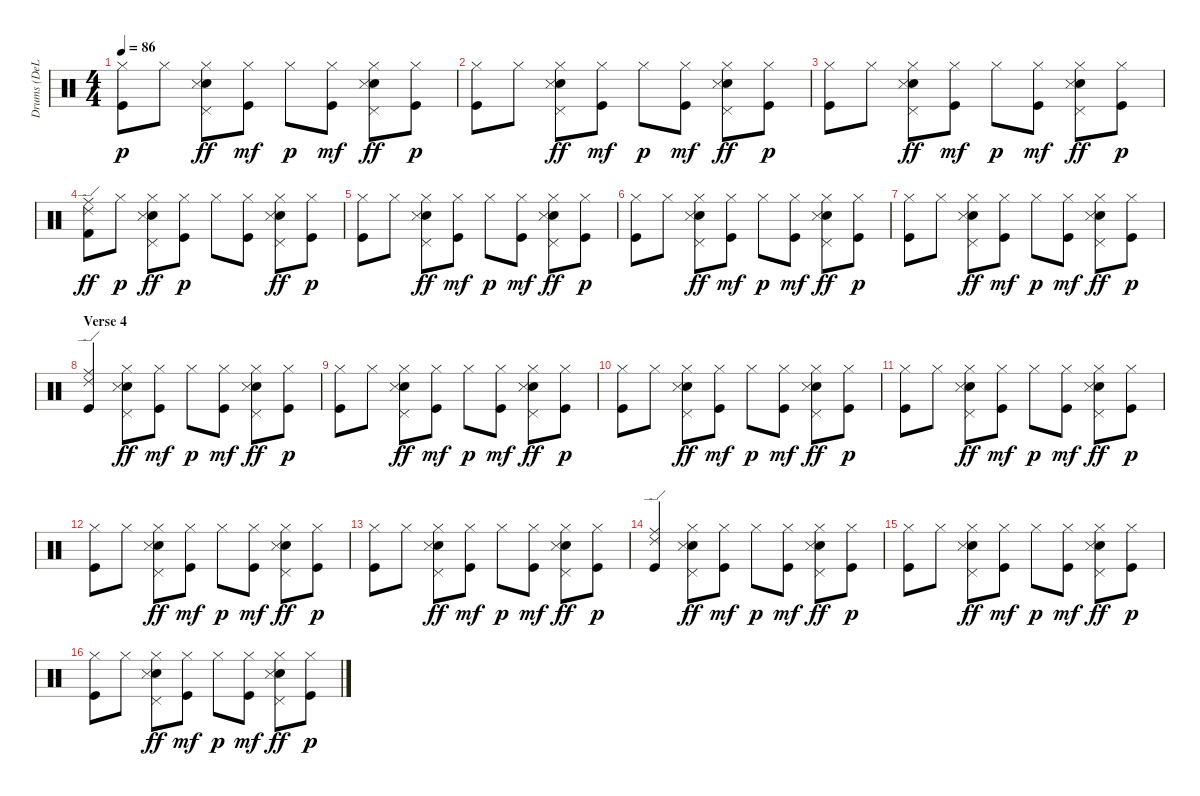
\track ("Drums (DeLorenzo)" "Drums (DeL") {instrument percussion}
\staff {score}
\articulation defaults
\ts (4 4)
\tempo 86
\clef neutral
\ks c
("Hi-Hat (closed)" "Kick (hit)").8{dy p} "Hi-Hat (closed)".8 ("Hi-Hat (closed)" "Pedal Hi-Hat (hit)" "Electric Snare (hit)" "Snare (side stick) 3").8{dy ff} ("Hi-Hat (closed)" "Kick (hit)").8{dy mf} "Hi-Hat (closed)".8{dy p} ("Hi-Hat (closed)" "Kick (hit)").8{dy mf} ("Hi-Hat (closed)" "Pedal Hi-Hat (hit)" "Electric Snare (hit)" "Snare (side stick) 3").8{dy ff} ("Hi-Hat (closed)" "Kick (hit)").8{dy p} |
("Hi-Hat (closed)" "Kick (hit)").8 "Hi-Hat (closed)".8 ("Hi-Hat (closed)" "Pedal Hi-Hat (hit)" "Electric Snare (hit)" "Snare (side stick) 3").8{dy ff} ("Hi-Hat (closed)" "Kick (hit)").8{dy mf} "Hi-Hat (closed)".8{dy p} ("Hi-Hat (closed)" "Kick (hit)").8{dy mf} ("Hi-Hat (closed)" "Pedal Hi-Hat (hit)" "Electric Snare (hit)" "Snare (side stick) 3").8{dy ff} ("Hi-Hat (closed)" "Kick (hit)").8{dy p} |
("Hi-Hat (closed)" "Kick (hit)").8 "Hi-Hat (closed)".8 ("Hi-Hat (closed)" "Pedal Hi-Hat (hit)" "Electric Snare (hit)" "Snare (side stick) 3").8{dy ff} ("Hi-Hat (closed)" "Kick (hit)").8{dy mf} "Hi-Hat (closed)".8{dy p} ("Hi-Hat (closed)" "Kick (hit)").8{dy mf} ("Hi-Hat (closed)" "Pedal Hi-Hat (hit)" "Electric Snare (hit)" "Snare (side stick) 3").8{dy ff} ("Hi-Hat (closed)" "Kick (hit)").8{dy p} |
("Ride (middle)" "Ride (edge) 2" "Kick (hit) 2").8{dy ff} "Hi-Hat (closed)".8{dy p} ("Hi-Hat (closed)" "Pedal Hi-Hat (hit)" "Electric Snare (hit)" "Snare (side stick) 3").8{dy ff} ("Hi-Hat (closed)" "Kick (hit)").8{dy p} "Hi-Hat (closed)".8 ("Hi-Hat (closed)" "Kick (hit)").8 ("Hi-Hat (closed)" "Pedal Hi-Hat (hit)" "Electric Snare (hit)" "Snare (side stick) 3").8{dy ff} ("Hi-Hat (closed)" "Kick (hit)").8{dy p} |
("Hi-Hat (closed)" "Kick (hit)").8 "Hi-Hat (closed)".8 ("Hi-Hat (closed)" "Pedal Hi-Hat (hit)" "Electric Snare (hit)" "Snare (side stick) 3").8{dy ff} ("Hi-Hat (closed)" "Kick (hit)").8{dy mf} "Hi-Hat (closed)".8{dy p} ("Hi-Hat (closed)" "Kick (hit)").8{dy mf} ("Hi-Hat (closed)" "Pedal Hi-Hat (hit)" "Electric Snare (hit)" "Snare (side stick) 3").8{dy ff} ("Hi-Hat (closed)" "Kick (hit)").8{dy p} |
("Hi-Hat (closed)" "Kick (hit)").8 "Hi-Hat (closed)".8 ("Hi-Hat (closed)" "Pedal Hi-Hat (hit)" "Electric Snare (hit)" "Snare (side stick) 3").8{dy ff} ("Hi-Hat (closed)" "Kick (hit)").8{dy mf} "Hi-Hat (closed)".8{dy p} ("Hi-Hat (closed)" "Kick (hit)").8{dy mf} ("Hi-Hat (closed)" "Pedal Hi-Hat (hit)" "Electric Snare (hit)" "Snare (side stick) 3").8{dy ff} ("Hi-Hat (closed)" "Kick (hit)").8{dy p} |
("Hi-Hat (closed)" "Kick (hit)").8 "Hi-Hat (closed)".8 ("Hi-Hat (closed)" "Pedal Hi-Hat (hit)" "Electric Snare (hit)" "Snare (side stick) 3").8{dy ff} ("Hi-Hat (closed)" "Kick (hit)").8{dy mf} "Hi-Hat (closed)".8{dy p} ("Hi-Hat (closed)" "Kick (hit)").8{dy mf} ("Hi-Hat (closed)" "Pedal Hi-Hat (hit)" "Electric Snare (hit)" "Snare (side stick) 3").8{dy ff} ("Hi-Hat (closed)" "Kick (hit)").8{dy p} |
\section ("" "Verse 4")
("Ride (middle)" "Ride (edge) 2" "Kick (hit)").4 ("Hi-Hat (closed)" "Pedal Hi-Hat (hit)" "Electric Snare (hit)" "Snare (side stick) 3").8{dy ff} ("Hi-Hat (closed)" "Kick (hit)").8{dy mf} "Hi-Hat (closed)".8{dy p} ("Hi-Hat (closed)" "Kick (hit)").8{dy mf} ("Hi-Hat (closed)" "Pedal Hi-Hat (hit)" "Electric Snare (hit)" "Snare (side stick) 3").8{dy ff} ("Hi-Hat (closed)" "Kick (hit)").8{dy p} |
("Hi-Hat (closed)" "Kick (hit)").8 "Hi-Hat (closed)".8 ("Hi-Hat (closed)" "Pedal Hi-Hat (hit)" "Electric Snare (hit)" "Snare (side stick) 3").8{dy ff} ("Hi-Hat (closed)" "Kick (hit)").8{dy mf} "Hi-Hat (closed)".8{dy p} ("Hi-Hat (closed)" "Kick (hit)").8{dy mf} ("Hi-Hat (closed)" "Pedal Hi-Hat (hit)" "Electric Snare (hit)" "Snare (side stick) 3").8{dy ff} ("Hi-Hat (closed)" "Kick (hit)").8{dy p} |
("Hi-Hat (closed)" "Kick (hit)").8 "Hi-Hat (closed)".8 ("Hi-Hat (closed)" "Pedal Hi-Hat (hit)" "Electric Snare (hit)" "Snare (side stick) 3").8{dy ff} ("Hi-Hat (closed)" "Kick (hit)").8{dy mf} "Hi-Hat (closed)".8{dy p} ("Hi-Hat (closed)" "Kick (hit)").8{dy mf} ("Hi-Hat (closed)" "Pedal Hi-Hat (hit)" "Electric Snare (hit)" "Snare (side stick) 3").8{dy ff} ("Hi-Hat (closed)" "Kick (hit)").8{dy p} |
("Hi-Hat (closed)" "Kick (hit)").8 "Hi-Hat (closed)".8 ("Hi-Hat (closed)" "Pedal Hi-Hat (hit)" "Electric Snare (hit)" "Snare (side stick) 3").8{dy ff} ("Hi-Hat (closed)" "Kick (hit)").8{dy mf} "Hi-Hat (closed)".8{dy p} ("Hi-Hat (closed)" "Kick (hit)").8{dy mf} ("Hi-Hat (closed)" "Pedal Hi-Hat (hit)" "Electric Snare (hit)" "Snare (side stick) 3").8{dy ff} ("Hi-Hat (closed)" "Kick (hit)").8{dy p} |
("Hi-Hat (closed)" "Kick (hit)").8 "Hi-Hat (closed)".8 ("Hi-Hat (closed)" "Pedal Hi-Hat (hit)" "Electric Snare (hit)" "Snare (side stick) 3").8{dy ff} ("Hi-Hat (closed)" "Kick (hit)").8{dy mf} "Hi-Hat (closed)".8{dy p} ("Hi-Hat (closed)" "Kick (hit)").8{dy mf} ("Hi-Hat (closed)" "Pedal Hi-Hat (hit)" "Electric Snare (hit)" "Snare (side stick) 3").8{dy ff} ("Hi-Hat (closed)" "Kick (hit)").8{dy p} |
("Hi-Hat (closed)" "Kick (hit)").8 "Hi-Hat (closed)".8 ("Hi-Hat (closed)" "Pedal Hi-Hat (hit)" "Electric Snare (hit)" "Snare (side stick) 3").8{dy ff} ("Hi-Hat (closed)" "Kick (hit)").8{dy mf} "Hi-Hat (closed)".8{dy p} ("Hi-Hat (closed)" "Kick (hit)").8{dy mf} ("Hi-Hat (closed)" "Pedal Hi-Hat (hit)" "Electric Snare (hit)" "Snare (side stick) 3").8{dy ff} ("Hi-Hat (closed)" "Kick (hit)").8{dy p} |
("Ride (middle)" "Ride (edge) 2" "Kick (hit)").4 ("Hi-Hat (closed)" "Pedal Hi-Hat (hit)" "Electric Snare (hit)" "Snare (side stick) 3").8{dy ff} ("Hi-Hat (closed)" "Kick (hit)").8{dy mf} "Hi-Hat (closed)".8{dy p} ("Hi-Hat (closed)" "Kick (hit)").8{dy mf} ("Hi-Hat (closed)" "Pedal Hi-Hat (hit)" "Electric Snare (hit)" "Snare (side stick) 3").8{dy ff} ("Hi-Hat (closed)" "Kick (hit)").8{dy p} |
("Hi-Hat (closed)" "Kick (hit)").8 "Hi-Hat (closed)".8 ("Hi-Hat (closed)" "Pedal Hi-Hat (hit)" "Electric Snare (hit)" "Snare (side stick) 3").8{dy ff} ("Hi-Hat (closed)" "Kick (hit)").8{dy mf} "Hi-Hat (closed)".8{dy p} ("Hi-Hat (closed)" "Kick (hit)").8{dy mf} ("Hi-Hat (closed)" "Pedal Hi-Hat (hit)" "Electric Snare (hit)" "Snare (side stick) 3").8{dy ff} ("Hi-Hat (closed)" "Kick (hit)").8{dy p} |
("Hi-Hat (closed)" "Kick (hit)").8 "Hi-Hat (closed)".8 ("Hi-Hat (closed)" "Pedal Hi-Hat (hit)" "Electric Snare (hit)" "Snare (side stick) 3").8{dy ff} ("Hi-Hat (closed)" "Kick (hit)").8{dy mf} "Hi-Hat (closed)".8{dy p} ("Hi-Hat (closed)" "Kick (hit)").8{dy mf} ("Hi-Hat (closed)" "Pedal Hi-Hat (hit)" "Electric Snare (hit)" "Snare (side stick) 3").8{dy ff} ("Hi-Hat (closed)" "Kick (hit)").8{dy p}
